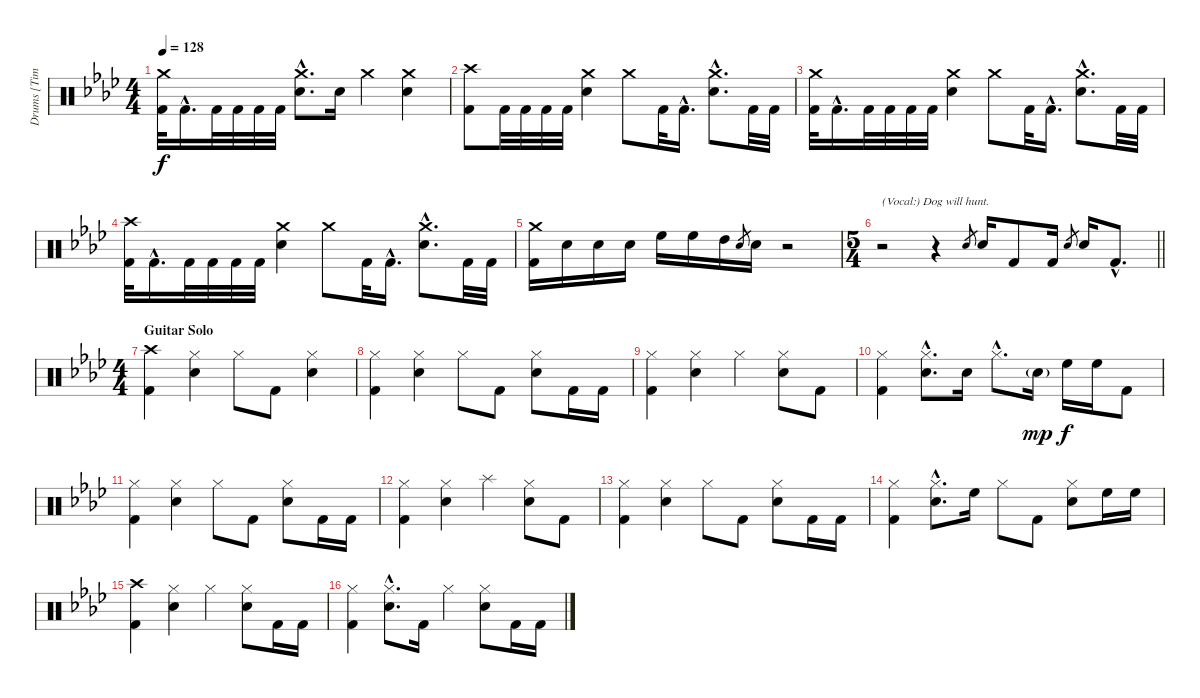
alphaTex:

\track ("Drums [Tim Alexander]" "Drums [Tim") {instrument percussion}
\staff {score}
\articulation defaults
\ts (4 4)
\tempo 128
\clef neutral
\ks ab
("Crash medium (hit)" "Kick (hit) 2").32{dy f} "Kick (hit) 2"{hac}.16{d} "Kick (hit) 2".32 "Kick (hit) 2".32 "Kick (hit) 2".32 "Kick (hit) 2".32 ("Crash medium (hit)"{hac} "Electric Snare (hit)"{hac}).8{d} "Electric Snare (hit)".16 "Crash medium (hit)".4 ("Crash medium (hit)" "Electric Snare (hit)").4 |
("Crash high (hit)" "Kick (hit) 2").8 "Kick (hit) 2".32 "Kick (hit) 2".32 "Kick (hit) 2".32 "Kick (hit) 2".32 ("Crash medium (hit)" "Electric Snare (hit)").4 "Crash medium (hit)".8 "Kick (hit) 2".32 "Kick (hit) 2"{hac}.16{d} ("Crash medium (hit)"{hac} "Electric Snare (hit)"{hac}).8{d} "Kick (hit) 2".32 "Kick (hit) 2".32 |
("Crash medium (hit)" "Kick (hit) 2").32 "Kick (hit) 2"{hac}.16{d} "Kick (hit) 2".32 "Kick (hit) 2".32 "Kick (hit) 2".32 "Kick (hit) 2".32 ("Crash medium (hit)" "Electric Snare (hit)").4 "Crash medium (hit)".8 "Kick (hit) 2".32 "Kick (hit) 2"{hac}.16{d} ("Crash medium (hit)"{hac} "Electric Snare (hit)"{hac}).8{d} "Kick (hit) 2".32 "Kick (hit) 2".32 |
("Crash high (hit)" "Kick (hit) 2").32 "Kick (hit) 2"{hac}.16{d} "Kick (hit) 2".32 "Kick (hit) 2".32 "Kick (hit) 2".32 "Kick (hit) 2".32 ("Crash medium (hit)" "Electric Snare (hit)").4 "Crash medium (hit)".8 "Kick (hit) 2".32 "Kick (hit) 2"{hac}.16{d} ("Crash medium (hit)"{hac} "Electric Snare (hit)"{hac}).8{d} "Kick (hit) 2".32 "Kick (hit) 2".32 |
("Crash medium (hit)" "Kick (hit) 2").16 "Electric Snare (hit)".16 "Electric Snare (hit)".16 "Electric Snare (hit)".16 "High Floor Tom (hit)".16 "High Floor Tom (hit)".16 "High Tom (hit)".16 "Electric Snare (hit)".8{gr} "Electric Snare (hit)".16 r.2 |
\ts (5 4)
\barLineRight lightlight
r.2{txt "(Vocal:) Dog will hunt."} r.4 "Electric Snare (hit)".8{gr} "Electric Snare (hit)".16 "Kick (hit) 2".8 "Kick (hit) 2".16 "Electric Snare (hit)".8{gr} "Electric Snare (hit)".16 "Kick (hit) 2"{hac}.8{d} |
\ts (4 4)
\section ("" "Guitar Solo")
("Crash high (hit)" "Kick (hit) 2").4 ("Hi-Hat (closed)" "Electric Snare (hit)").4 "Hi-Hat (closed)".8 "Kick (hit) 2".8 ("Hi-Hat (closed)" "Electric Snare (hit)").4 |
("Hi-Hat (closed)" "Kick (hit) 2").4 ("Hi-Hat (closed)" "Electric Snare (hit)").4 "Hi-Hat (closed)".8 "Kick (hit) 2".8 ("Hi-Hat (closed)" "Electric Snare (hit)").8 "Kick (hit) 2".16 "Kick (hit) 2".16 |
("Hi-Hat (closed)" "Kick (hit) 2").4 ("Hi-Hat (closed)" "Electric Snare (hit)").4 "Hi-Hat (closed)".4 ("Hi-Hat (closed)" "Electric Snare (hit)").8 "Kick (hit) 2".8 |
("Hi-Hat (closed)" "Kick (hit) 2").4 ("Hi-Hat (closed)"{hac} "Electric Snare (hit)"{hac}).8{d} "Electric Snare (hit)".16 "Hi-Hat (closed)"{hac}.8{d} "Electric Snare (hit)"{g}.16{dy mp} "High Floor Tom (hit)".16{dy f} "High Floor Tom (hit)".16 "Kick (hit) 2".8 |
("Hi-Hat (closed)" "Kick (hit) 2").4 ("Hi-Hat (closed)" "Electric Snare (hit)").4 "Hi-Hat (closed)".8 "Kick (hit) 2".8 ("Hi-Hat (closed)" "Electric Snare (hit)").8 "Kick (hit) 2".16 "Kick (hit) 2".16 |
("Hi-Hat (closed)" "Kick (hit) 2").4 ("Hi-Hat (closed)" "Electric Snare (hit)").4 "Splash (hit)".4 ("Hi-Hat (closed)" "Electric Snare (hit)").8 "Kick (hit) 2".8 |
("Hi-Hat (closed)" "Kick (hit) 2").4 ("Hi-Hat (closed)" "Electric Snare (hit)").4 "Hi-Hat (closed)".8 "Kick (hit) 2".8 ("Hi-Hat (closed)" "Electric Snare (hit)").8 "Kick (hit) 2".16 "Kick (hit) 2".16 |
("Hi-Hat (closed)" "Kick (hit) 2").4 ("Hi-Hat (closed)"{hac} "Electric Snare (hit)"{hac}).8{d} "High Floor Tom (hit)".16 "Hi-Hat (closed)".8 "Kick (hit) 2".8 ("Hi-Hat (closed)" "Electric Snare (hit)").8 "High Floor Tom (hit)".16 "High Floor Tom (hit)".16 |
("Crash high (hit)" "Kick (hit) 2").4 ("Hi-Hat (closed)" "Electric Snare (hit)").4 "Hi-Hat (closed)".4 ("Hi-Hat (closed)" "Electric Snare (hit)").8 "Kick (hit) 2".16 "Kick (hit) 2".16 |
("Hi-Hat (closed)" "Kick (hit) 2").4 ("Hi-Hat (closed)"{hac} "Electric Snare (hit)"{hac}).8{d} "Kick (hit) 2".16 "Hi-Hat (closed)".4 ("Hi-Hat (closed)" "Electric Snare (hit)").8 "Kick (hit) 2".16 "Kick (hit) 2".16
